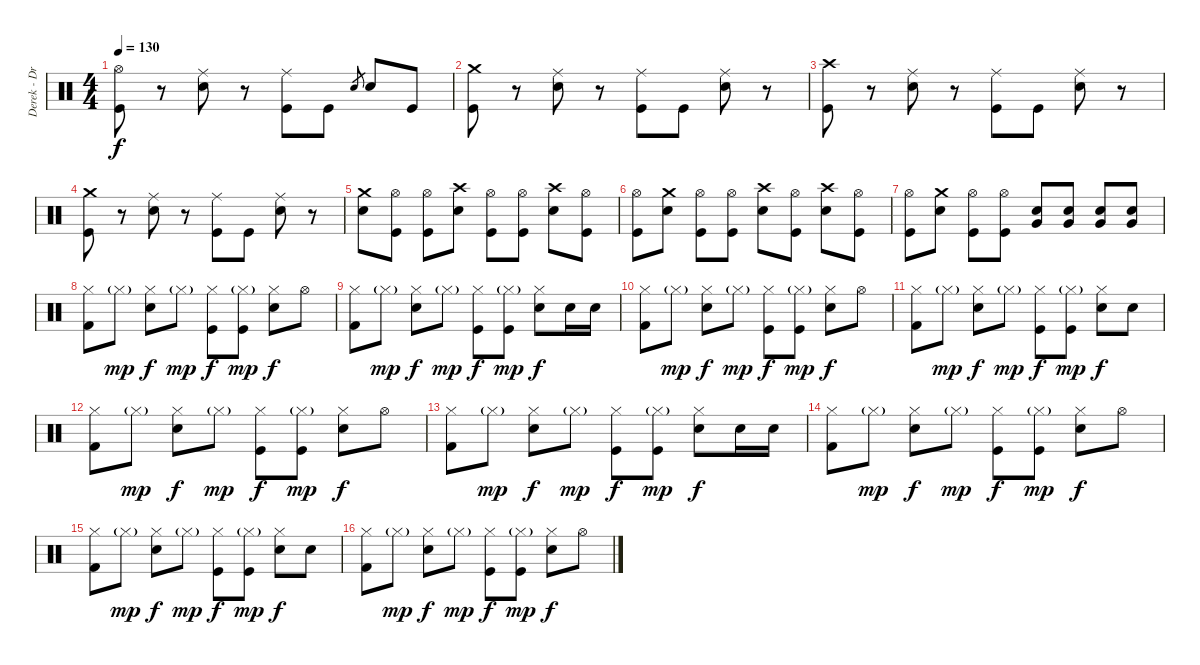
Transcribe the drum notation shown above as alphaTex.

\track ("Derek - Drums" "Derek - Dr") {instrument percussion}
\staff {score}
\articulation defaults
\ts (4 4)
\tempo 130
\clef neutral
\ks c
("Hi-Hat (open)" "Kick (hit)").8{dy f} r.8 ("Ride (middle)" "Electric Snare (hit)").8 r.8 ("Ride (middle)" "Kick (hit)").8 "Kick (hit)".8 "Electric Snare (hit)".8{gr} "Electric Snare (hit)".8 "Kick (hit)".8 |
("Crash medium (hit)" "Kick (hit)").8 r.8 ("Ride (middle)" "Electric Snare (hit)").8 r.8 ("Ride (middle)" "Kick (hit)").8 "Kick (hit)".8 ("Ride (middle)" "Electric Snare (hit)").8 r.8 |
("Crash high (hit)" "Kick (hit)").8 r.8 ("Ride (middle)" "Electric Snare (hit)").8 r.8 ("Ride (middle)" "Kick (hit)").8 "Kick (hit)".8 ("Ride (middle)" "Electric Snare (hit)").8 r.8 |
("Crash medium (hit)" "Kick (hit)").8 r.8 ("Ride (middle)" "Electric Snare (hit)").8 r.8 ("Ride (middle)" "Kick (hit)").8 "Kick (hit)".8 ("Ride (middle)" "Electric Snare (hit)").8 r.8 |
("Crash medium (hit)" "Electric Snare (hit)").8 ("Hi-Hat (open)" "Kick (hit)").8 ("Hi-Hat (open)" "Kick (hit)").8 ("Crash high (hit)" "Electric Snare (hit)").8 ("Hi-Hat (open)" "Kick (hit)").8 ("Hi-Hat (open)" "Kick (hit)").8 ("Crash high (hit)" "Electric Snare (hit)").8 ("Hi-Hat (open)" "Kick (hit)").8 |
("Hi-Hat (open)" "Kick (hit)").8 ("Crash medium (hit)" "Electric Snare (hit)").8 ("Hi-Hat (open)" "Kick (hit)").8 ("Hi-Hat (open)" "Kick (hit)").8 ("Crash high (hit)" "Electric Snare (hit)").8 ("Hi-Hat (open)" "Kick (hit)").8 ("Crash high (hit)" "Electric Snare (hit)").8 ("Hi-Hat (open)" "Kick (hit)").8 |
("Hi-Hat (open)" "Kick (hit)").8 ("Crash medium (hit)" "Electric Snare (hit)").8 ("Hi-Hat (open)" "Kick (hit)").8 ("Hi-Hat (open)" "Kick (hit)").8 ("Electric Snare (hit)" "Very Low Tom (hit)").8 ("Electric Snare (hit)" "Very Low Tom (hit)").8 ("Electric Snare (hit)" "Very Low Tom (hit)").8 ("Electric Snare (hit)" "Very Low Tom (hit)").8 |
("Hi-Hat (closed)" "Kick (hit) 2").8 "Hi-Hat (closed)"{g}.8{dy mp} ("Hi-Hat (closed)" "Electric Snare (hit)").8{dy f} "Hi-Hat (closed)"{g}.8{dy mp} ("Hi-Hat (closed)" "Kick (hit)").8{dy f} ("Hi-Hat (closed)"{g} "Kick (hit)").8{dy mp} ("Hi-Hat (closed)" "Electric Snare (hit)").8{dy f} "Hi-Hat (open)".8 |
("Hi-Hat (closed)" "Kick (hit) 2").8 "Hi-Hat (closed)"{g}.8{dy mp} ("Hi-Hat (closed)" "Electric Snare (hit)").8{dy f} "Hi-Hat (closed)"{g}.8{dy mp} ("Hi-Hat (closed)" "Kick (hit)").8{dy f} ("Hi-Hat (closed)"{g} "Kick (hit)").8{dy mp} ("Hi-Hat (closed)" "Electric Snare (hit)").8{dy f} "Electric Snare (hit)".16 "Electric Snare (hit)".16 |
("Hi-Hat (closed)" "Kick (hit) 2").8 "Hi-Hat (closed)"{g}.8{dy mp} ("Hi-Hat (closed)" "Electric Snare (hit)").8{dy f} "Hi-Hat (closed)"{g}.8{dy mp} ("Hi-Hat (closed)" "Kick (hit)").8{dy f} ("Hi-Hat (closed)"{g} "Kick (hit)").8{dy mp} ("Hi-Hat (closed)" "Electric Snare (hit)").8{dy f} "Hi-Hat (open)".8 |
("Hi-Hat (closed)" "Kick (hit) 2").8 "Hi-Hat (closed)"{g}.8{dy mp} ("Hi-Hat (closed)" "Electric Snare (hit)").8{dy f} "Hi-Hat (closed)"{g}.8{dy mp} ("Hi-Hat (closed)" "Kick (hit)").8{dy f} ("Hi-Hat (closed)"{g} "Kick (hit)").8{dy mp} ("Hi-Hat (closed)" "Electric Snare (hit)").8{dy f} "Electric Snare (hit)".8 |
("Hi-Hat (closed)" "Kick (hit) 2").8 "Hi-Hat (closed)"{g}.8{dy mp} ("Hi-Hat (closed)" "Electric Snare (hit)").8{dy f} "Hi-Hat (closed)"{g}.8{dy mp} ("Hi-Hat (closed)" "Kick (hit)").8{dy f} ("Hi-Hat (closed)"{g} "Kick (hit)").8{dy mp} ("Hi-Hat (closed)" "Electric Snare (hit)").8{dy f} "Hi-Hat (open)".8 |
("Hi-Hat (closed)" "Kick (hit) 2").8 "Hi-Hat (closed)"{g}.8{dy mp} ("Hi-Hat (closed)" "Electric Snare (hit)").8{dy f} "Hi-Hat (closed)"{g}.8{dy mp} ("Hi-Hat (closed)" "Kick (hit)").8{dy f} ("Hi-Hat (closed)"{g} "Kick (hit)").8{dy mp} ("Hi-Hat (closed)" "Electric Snare (hit)").8{dy f} "Electric Snare (hit)".16 "Electric Snare (hit)".16 |
("Hi-Hat (closed)" "Kick (hit) 2").8 "Hi-Hat (closed)"{g}.8{dy mp} ("Hi-Hat (closed)" "Electric Snare (hit)").8{dy f} "Hi-Hat (closed)"{g}.8{dy mp} ("Hi-Hat (closed)" "Kick (hit)").8{dy f} ("Hi-Hat (closed)"{g} "Kick (hit)").8{dy mp} ("Hi-Hat (closed)" "Electric Snare (hit)").8{dy f} "Hi-Hat (open)".8 |
("Hi-Hat (closed)" "Kick (hit) 2").8 "Hi-Hat (closed)"{g}.8{dy mp} ("Hi-Hat (closed)" "Electric Snare (hit)").8{dy f} "Hi-Hat (closed)"{g}.8{dy mp} ("Hi-Hat (closed)" "Kick (hit)").8{dy f} ("Hi-Hat (closed)"{g} "Kick (hit)").8{dy mp} ("Hi-Hat (closed)" "Electric Snare (hit)").8{dy f} "Electric Snare (hit)".8 |
("Hi-Hat (closed)" "Kick (hit) 2").8 "Hi-Hat (closed)"{g}.8{dy mp} ("Hi-Hat (closed)" "Electric Snare (hit)").8{dy f} "Hi-Hat (closed)"{g}.8{dy mp} ("Hi-Hat (closed)" "Kick (hit)").8{dy f} ("Hi-Hat (closed)"{g} "Kick (hit)").8{dy mp} ("Hi-Hat (closed)" "Electric Snare (hit)").8{dy f} "Hi-Hat (open)".8
